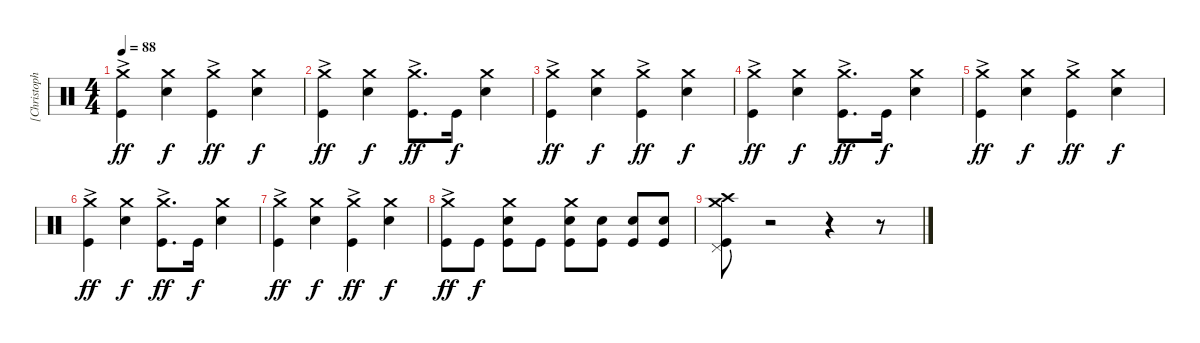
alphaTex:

\track ("[Christoph Schneider]  Drums" "[Christoph") {instrument percussion}
\staff {score}
\articulation defaults
\ts (4 4)
\tempo 88
\clef neutral
\ks c
("Crash medium (hit)" "Kick (hit)"{ac}).4{dy ff} ("Electric Snare (hit)" "Crash medium (hit)").4{dy f} ("Crash medium (hit)" "Kick (hit)"{ac}).4{dy ff} ("Electric Snare (hit)" "Crash medium (hit)").4{dy f} |
("Crash medium (hit)" "Kick (hit)"{ac}).4{dy ff} ("Electric Snare (hit)" "Crash medium (hit)").4{dy f} ("Crash medium (hit)" "Kick (hit)"{ac}).8{d dy ff} "Kick (hit)".16{dy f} ("Electric Snare (hit)" "Crash medium (hit)").4 |
("Crash medium (hit)" "Kick (hit)"{ac}).4{dy ff} ("Electric Snare (hit)" "Crash medium (hit)").4{dy f} ("Crash medium (hit)" "Kick (hit)"{ac}).4{dy ff} ("Electric Snare (hit)" "Crash medium (hit)").4{dy f} |
("Crash medium (hit)" "Kick (hit)"{ac}).4{dy ff} ("Electric Snare (hit)" "Crash medium (hit)").4{dy f} ("Crash medium (hit)" "Kick (hit)"{ac}).8{d dy ff} "Kick (hit)".16{dy f} ("Electric Snare (hit)" "Crash medium (hit)").4 |
("Crash medium (hit)" "Kick (hit)"{ac}).4{dy ff} ("Electric Snare (hit)" "Crash medium (hit)").4{dy f} ("Crash medium (hit)" "Kick (hit)"{ac}).4{dy ff} ("Electric Snare (hit)" "Crash medium (hit)").4{dy f} |
("Crash medium (hit)" "Kick (hit)"{ac}).4{dy ff} ("Electric Snare (hit)" "Crash medium (hit)").4{dy f} ("Crash medium (hit)" "Kick (hit)"{ac}).8{d dy ff} "Kick (hit)".16{dy f} ("Electric Snare (hit)" "Crash medium (hit)").4 |
("Crash medium (hit)" "Kick (hit)"{ac}).4{dy ff} ("Electric Snare (hit)" "Crash medium (hit)").4{dy f} ("Crash medium (hit)" "Kick (hit)"{ac}).4{dy ff} ("Electric Snare (hit)" "Crash medium (hit)").4{dy f} |
("Crash medium (hit)" "Kick (hit)"{ac}).8{dy ff} "Kick (hit)".8{dy f} ("Kick (hit)" "Electric Snare (hit)" "Crash medium (hit)").8 "Kick (hit)".8 ("Electric Snare (hit)" "Crash medium (hit)" "Kick (hit)").8 ("Kick (hit)" "Electric Snare (hit)").8 ("Electric Snare (hit)" "Kick (hit)").8 ("Kick (hit)" "Electric Snare (hit)").8 |
("Pedal Hi-Hat (hit)" "Crash medium (hit)" "Crash high (hit)" "Kick (hit)").8 r.2 r.4 r.8
